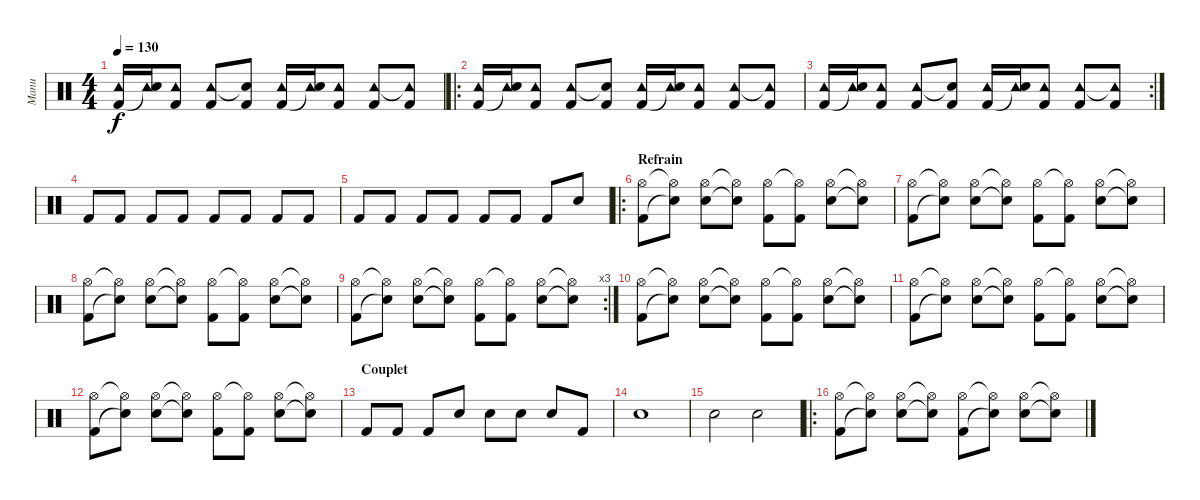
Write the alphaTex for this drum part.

\track ("Manu" "Manu") {instrument percussion}
\staff {score}
\articulation defaults
\ts (4 4)
\tempo 130
\clef neutral
\ks c
("Tambourine (hit)" "Kick (hit) 2").16{dy f volume 8} ("Tambourine (hit)" "Snare (hit)"{t}).16 ("Tambourine (hit)" "Kick (hit) 2").8 ("Tambourine (hit)" "Kick (hit) 2").8 ("Snare (hit)"{t} "Kick (hit) 2").8 ("Tambourine (hit)" "Kick (hit) 2").16 ("Tambourine (hit)" "Snare (hit)"{t}).16 ("Tambourine (hit)" "Kick (hit) 2").8 ("Tambourine (hit)" "Kick (hit) 2").8 ("Tambourine (hit)"{t} "Kick (hit) 2").8 |
\ro
("Tambourine (hit)" "Kick (hit) 2").16{volume 8} ("Tambourine (hit)" "Snare (hit)"{t}).16 ("Tambourine (hit)" "Kick (hit) 2").8 ("Tambourine (hit)" "Kick (hit) 2").8 ("Snare (hit)"{t} "Kick (hit) 2").8 ("Tambourine (hit)" "Kick (hit) 2").16 ("Tambourine (hit)" "Snare (hit)"{t}).16 ("Tambourine (hit)" "Kick (hit) 2").8 ("Tambourine (hit)" "Kick (hit) 2").8 ("Tambourine (hit)"{t} "Kick (hit) 2").8 |
\rc 2
("Tambourine (hit)" "Kick (hit) 2").16{volume 8} ("Tambourine (hit)" "Snare (hit)"{t}).16 ("Tambourine (hit)" "Kick (hit) 2").8 ("Tambourine (hit)" "Kick (hit) 2").8 ("Snare (hit)"{t} "Kick (hit) 2").8 ("Tambourine (hit)" "Kick (hit) 2").16 ("Tambourine (hit)" "Snare (hit)"{t}).16 ("Tambourine (hit)" "Kick (hit) 2").8 ("Tambourine (hit)" "Kick (hit) 2").8 ("Tambourine (hit)"{t} "Kick (hit) 2").8 |
"Kick (hit) 2".8{volume 10} "Kick (hit) 2".8 "Kick (hit) 2".8 "Kick (hit) 2".8 "Kick (hit) 2".8 "Kick (hit) 2".8 "Kick (hit) 2".8 "Kick (hit) 2".8 |
"Kick (hit) 2".8 "Kick (hit) 2".8 "Kick (hit) 2".8 "Kick (hit) 2".8 "Kick (hit) 2".8 "Kick (hit) 2".8 "Kick (hit) 2".8 "Snare (hit) 2".8 |
\ro
\section ("" "Refrain")
("Hi-Hat (open)" "Kick (hit) 2").8{volume 12} ("Hi-Hat (open)"{t} "Snare (hit) 2"{t}).8 ("Hi-Hat (open)" "Snare (hit) 2").8 ("Hi-Hat (open)"{t} "Snare (hit) 2"{t}).8 ("Hi-Hat (open)" "Kick (hit) 2").8 ("Hi-Hat (open)"{t} "Kick (hit) 2").8 ("Hi-Hat (open)" "Snare (hit) 2").8 ("Hi-Hat (open)"{t} "Snare (hit)"{t}).8 |
("Hi-Hat (open)" "Kick (hit) 2").8 ("Hi-Hat (open)"{t} "Snare (hit) 2"{t}).8 ("Hi-Hat (open)" "Snare (hit) 2").8 ("Hi-Hat (open)"{t} "Snare (hit) 2"{t}).8 ("Hi-Hat (open)" "Kick (hit) 2").8 ("Hi-Hat (open)"{t} "Kick (hit) 2").8 ("Hi-Hat (open)" "Snare (hit) 2").8 ("Hi-Hat (open)"{t} "Snare (hit)"{t}).8 |
("Hi-Hat (open)" "Kick (hit) 2").8 ("Hi-Hat (open)"{t} "Snare (hit) 2"{t}).8 ("Hi-Hat (open)" "Snare (hit) 2").8 ("Hi-Hat (open)"{t} "Snare (hit) 2"{t}).8 ("Hi-Hat (open)" "Kick (hit) 2").8 ("Hi-Hat (open)"{t} "Kick (hit) 2").8 ("Hi-Hat (open)" "Snare (hit) 2").8 ("Hi-Hat (open)"{t} "Snare (hit)"{t}).8 |
\rc 3
("Hi-Hat (open)" "Kick (hit) 2").8 ("Hi-Hat (open)"{t} "Snare (hit) 2"{t}).8 ("Hi-Hat (open)" "Snare (hit) 2").8 ("Hi-Hat (open)"{t} "Snare (hit) 2"{t}).8 ("Hi-Hat (open)" "Kick (hit) 2").8 ("Hi-Hat (open)"{t} "Kick (hit) 2").8 ("Hi-Hat (open)" "Snare (hit) 2").8 ("Hi-Hat (open)"{t} "Snare (hit)"{t}).8 |
("Hi-Hat (open)" "Kick (hit) 2").8 ("Hi-Hat (open)"{t} "Snare (hit) 2"{t}).8 ("Hi-Hat (open)" "Snare (hit) 2").8 ("Hi-Hat (open)"{t} "Snare (hit) 2"{t}).8 ("Hi-Hat (open)" "Kick (hit) 2").8 ("Hi-Hat (open)"{t} "Kick (hit) 2").8 ("Hi-Hat (open)" "Snare (hit) 2").8 ("Hi-Hat (open)"{t} "Snare (hit)"{t}).8 |
("Hi-Hat (open)" "Kick (hit) 2").8 ("Hi-Hat (open)"{t} "Snare (hit) 2"{t}).8 ("Hi-Hat (open)" "Snare (hit) 2").8 ("Hi-Hat (open)"{t} "Snare (hit) 2"{t}).8 ("Hi-Hat (open)" "Kick (hit) 2").8 ("Hi-Hat (open)"{t} "Kick (hit) 2").8 ("Hi-Hat (open)" "Snare (hit) 2").8 ("Hi-Hat (open)"{t} "Snare (hit)"{t}).8 |
("Hi-Hat (open)" "Kick (hit) 2").8 ("Hi-Hat (open)"{t} "Snare (hit) 2"{t}).8 ("Hi-Hat (open)" "Snare (hit) 2").8 ("Hi-Hat (open)"{t} "Snare (hit) 2"{t}).8 ("Hi-Hat (open)" "Kick (hit) 2").8 ("Hi-Hat (open)"{t} "Kick (hit) 2").8 ("Hi-Hat (open)" "Snare (hit) 2").8 ("Hi-Hat (open)"{t} "Snare (hit)"{t}).8 |
\section ("" "Couplet")
"Kick (hit) 2".8 "Kick (hit) 2".8 "Kick (hit) 2".8 "Electric Snare (hit)".8 "Electric Snare (hit)".8 "Snare (hit) 2".8 "Snare (hit) 2".8 "Kick (hit) 2".8 |
"Snare (hit) 2".1 |
"Snare (hit) 2".2 "Snare (hit) 2".2 |
\ro
("Hi-Hat (open)" "Kick (hit) 2").8 ("Hi-Hat (open)"{t} "Snare (hit) 2"{t}).8 ("Hi-Hat (open)" "Electric Snare (hit)").8 ("Hi-Hat (open)"{t} "Snare (hit) 2"{t}).8 ("Hi-Hat (open)" "Kick (hit) 2").8 ("Hi-Hat (open)"{t} "Snare (hit)"{t}).8 ("Hi-Hat (open)" "Electric Snare (hit)").8 ("Hi-Hat (open)"{t} "Snare (hit)"{t}).8
